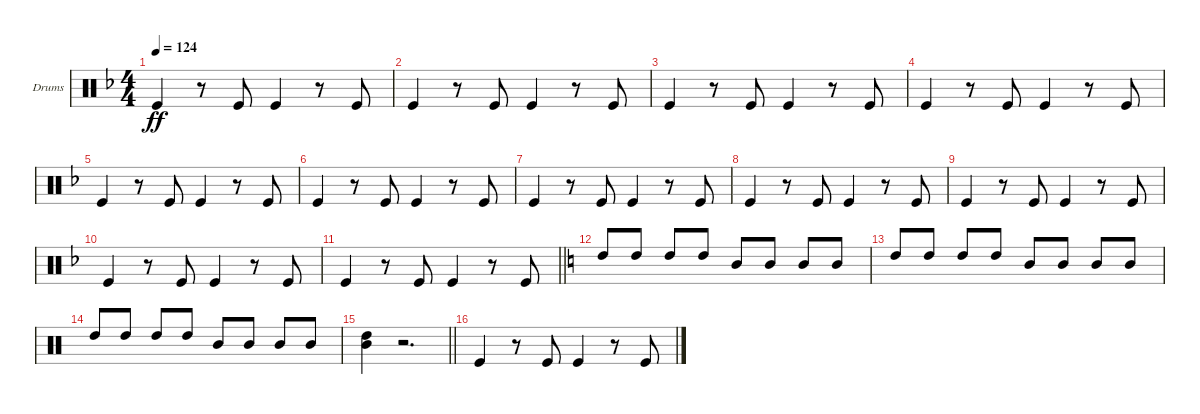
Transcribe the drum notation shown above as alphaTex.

\bracketExtendMode groupsimilarinstruments
\firstSystemTrackNameOrientation horizontal
\otherSystemsTrackNameOrientation horizontal
\track ("Kick Drum" "Drums") {instrument percussion}
\staff {score}
\articulation defaults
\ts (4 4)
\tempo 124
\clef neutral
\scale
0.333333
\ks dminor "Kick (hit)".4{dy ff}
r.8 "Kick (hit)".8 "Kick (hit)".4 r.8 "Kick (hit)".8 |
\scale
0.333333 "Kick (hit)".4 r.8 "Kick (hit)".8 "Kick (hit)".4 r.8 "Kick (hit)".8 |
\scale
0.333333 "Kick (hit)".4 r.8 "Kick (hit)".8 "Kick (hit)".4 r.8 "Kick (hit)".8 |
\scale
0.333333 "Kick (hit)".4 r.8 "Kick (hit)".8 "Kick (hit)".4 r.8 "Kick (hit)".8 |
\scale
0.333333 "Kick (hit)".4 r.8 "Kick (hit)".8 "Kick (hit)".4 r.8 "Kick (hit)".8 |
\scale
0.333333 "Kick (hit)".4 r.8 "Kick (hit)".8 "Kick (hit)".4 r.8 "Kick (hit)".8 |
\scale
0.333333 "Kick (hit)".4 r.8 "Kick (hit)".8 "Kick (hit)".4 r.8 "Kick (hit)".8 |
\scale
0.333333 "Kick (hit)".4 r.8 "Kick (hit)".8 "Kick (hit)".4 r.8 "Kick (hit)".8 |
\scale
0.333333 "Kick (hit)".4 r.8 "Kick (hit)".8 "Kick (hit)".4 r.8 "Kick (hit)".8 |
\scale
0.273171 "Kick (hit)".4 r.8 "Kick (hit)".8 "Kick (hit)".4 r.8 "Kick (hit)".8 |
\scale
0.273171
\barLineRight lightlight "Kick (hit)".4
r.8 "Kick (hit)".8 "Kick (hit)".4 r.8 "Kick (hit)".8 |
\scale
0.453659
\ks c "High Tom (hit)".8{beam invert} "High Tom (hit)".8 "High Tom (hit)".8{beam invert} "High Tom (hit)".8 "Mid Tom (hit)".8{beam invert} "Mid Tom (hit)".8 "Mid Tom (hit)".8{beam invert} "Mid Tom (hit)".8
|
\scale
0.333333 "High Tom (hit)".8{beam invert} "High Tom (hit)".8 "High Tom (hit)".8{beam invert} "High Tom (hit)".8 "Mid Tom (hit)".8{beam invert} "Mid Tom (hit)".8 "Mid Tom (hit)".8{beam invert} "Mid Tom (hit)".8 |
\scale
0.333333 "High Tom (hit)".8{beam invert} "High Tom (hit)".8 "High Tom (hit)".8{beam invert} "High Tom (hit)".8 "Mid Tom (hit)".8{beam invert} "Mid Tom (hit)".8 "Mid Tom (hit)".8{beam invert} "Mid Tom (hit)".8 |
\scale
0.333333
\barLineRight lightlight
("High Tom (hit)" "Mid Tom (hit)").4 r.2{d} |
\scale
0.333333 "Kick (hit)".4 r.8 "Kick (hit)".8 "Kick (hit)".4 r.8 "Kick (hit)".8
